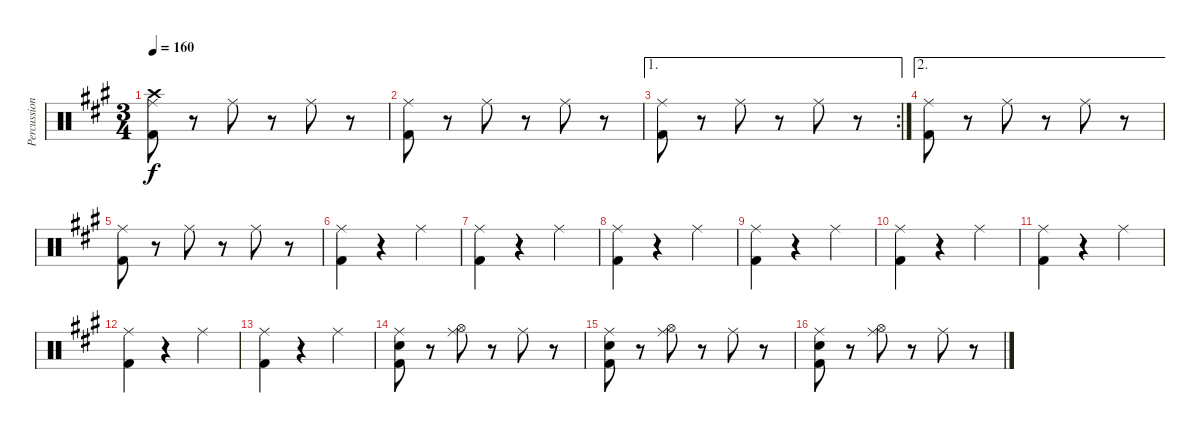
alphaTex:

\track ("Percussioni" "Percussion") {instrument percussion}
\staff {score}
\articulation defaults
\ts (3 4)
\tempo 160
\clef neutral
\ks a
("Crash high (hit)" "Ride (middle)" "Kick (hit) 2").8{dy f} r.8 "Ride (middle)".8 r.8 "Ride (middle)".8 r.8 |
("Ride (middle)" "Kick (hit) 2").8 r.8 "Ride (middle)".8 r.8 "Ride (middle)".8 r.8 |
\ae 1
\rc 2
("Ride (middle)" "Kick (hit) 2").8 r.8 "Ride (middle)".8 r.8 "Ride (middle)".8 r.8 |
\ae 2
("Ride (middle)" "Kick (hit) 2").8 r.8 "Ride (middle)".8 r.8 "Ride (middle)".8 r.8 |
("Ride (middle)" "Kick (hit) 2").8 r.8 "Ride (middle)".8 r.8 "Ride (middle)".8 r.8 |
("Ride (middle)" "Kick (hit) 2").4 r.4 "Ride (middle)".4 |
("Ride (middle)" "Kick (hit) 2").4 r.4 "Ride (middle)".4 |
("Ride (middle)" "Kick (hit) 2").4 r.4 "Ride (middle)".4 |
("Ride (middle)" "Kick (hit) 2").4 r.4 "Ride (middle)".4 |
("Ride (middle)" "Kick (hit) 2").4 r.4 "Ride (middle)".4 |
("Ride (middle)" "Kick (hit) 2").4 r.4 "Ride (middle)".4 |
("Ride (middle)" "Kick (hit) 2").4 r.4 "Ride (middle)".4 |
("Ride (middle)" "Kick (hit) 2").4 r.4 "Ride (middle)".4 |
("Electric Snare (hit)" "Ride (middle)" "Kick (hit) 2").8 r.8 ("Hi-Hat (open)" "Ride (middle)").8 r.8 "Ride (middle)".8 r.8 |
("Electric Snare (hit)" "Ride (middle)" "Kick (hit) 2").8 r.8 ("Hi-Hat (open)" "Ride (middle)").8 r.8 "Ride (middle)".8 r.8 |
("Electric Snare (hit)" "Ride (middle)" "Kick (hit) 2").8 r.8 ("Hi-Hat (open)" "Ride (middle)").8 r.8 "Ride (middle)".8 r.8
